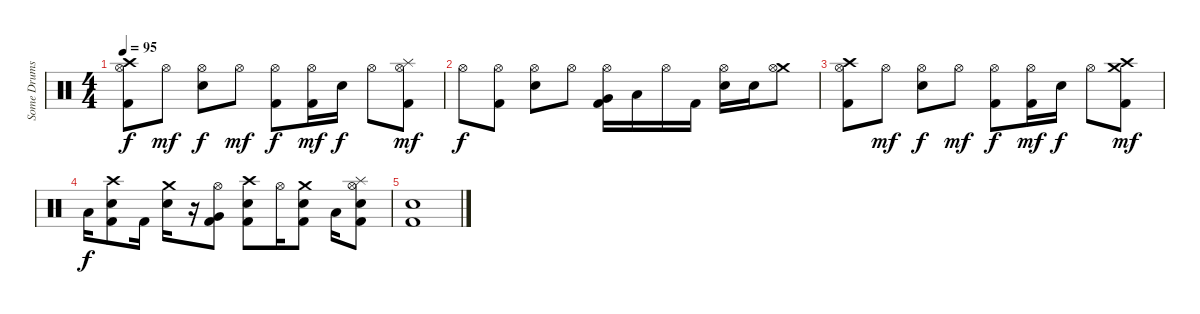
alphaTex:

\track ("Some Drums" "Some Drums") {instrument percussion}
\staff {score}
\articulation defaults
\ts (4 4)
\tempo 95
\clef neutral
\ks c
("Crash high (hit)" "Hi-Hat (open)" "Kick (hit) 2").8{dy f} "Hi-Hat (open)".8{dy mf} ("Hi-Hat (open)" "Electric Snare (hit)").8{dy f} "Hi-Hat (open)".8{dy mf} ("Hi-Hat (open)" "Kick (hit) 2").8{dy f} ("Hi-Hat (open)" "Kick (hit) 2").16{dy mf} "Electric Snare (hit)".16{dy f} "Hi-Hat (open)".8 ("Splash (hit)" "Hi-Hat (open)" "Kick (hit) 2").8{dy mf} |
"Hi-Hat (open)".8{dy f} ("Hi-Hat (open)" "Kick (hit) 2").8 ("Hi-Hat (open)" "Electric Snare (hit)").8 "Hi-Hat (open)".8 ("Hi-Hat (open)" "Very Low Tom (hit)" "Kick (hit) 2").16 "Low Floor Tom (hit)".16 "Hi-Hat (open)".16 "Kick (hit) 2".16 ("Hi-Hat (open)" "Electric Snare (hit)").16 "Electric Snare (hit)".16 ("Crash medium (hit)" "Hi-Hat (open)").8 |
("Crash high (hit)" "Hi-Hat (open)" "Kick (hit) 2").8 "Hi-Hat (open)".8{dy mf} ("Hi-Hat (open)" "Electric Snare (hit)").8{dy f} "Hi-Hat (open)".8{dy mf} ("Hi-Hat (open)" "Kick (hit) 2").8{dy f} ("Hi-Hat (open)" "Kick (hit) 2").16{dy mf} "Electric Snare (hit)".16{dy f} "Hi-Hat (open)".8 ("Crash medium (hit)" "Crash high (hit)" "Kick (hit) 2").8{dy mf} |
"Low Tom (hit)".16{dy f} ("Crash high (hit)" "Electric Snare (hit)" "Kick (hit) 2").8 "Kick (hit) 2".16 ("Crash medium (hit)" "Electric Snare (hit)").16 r.16 ("Hi-Hat (open)" "Very Low Tom (hit)" "Kick (hit) 2").8 ("Crash high (hit)" "Electric Snare (hit)" "Kick (hit) 2").8 "Hi-Hat (open)".16 ("Crash medium (hit)" "Electric Snare (hit)" "Kick (hit) 2").8 "Low Tom (hit)".16 ("Splash (hit)" "Hi-Hat (open)" "Electric Snare (hit)" "Kick (hit) 2").8 |
("Electric Snare (hit)" "Kick (hit) 2").1
